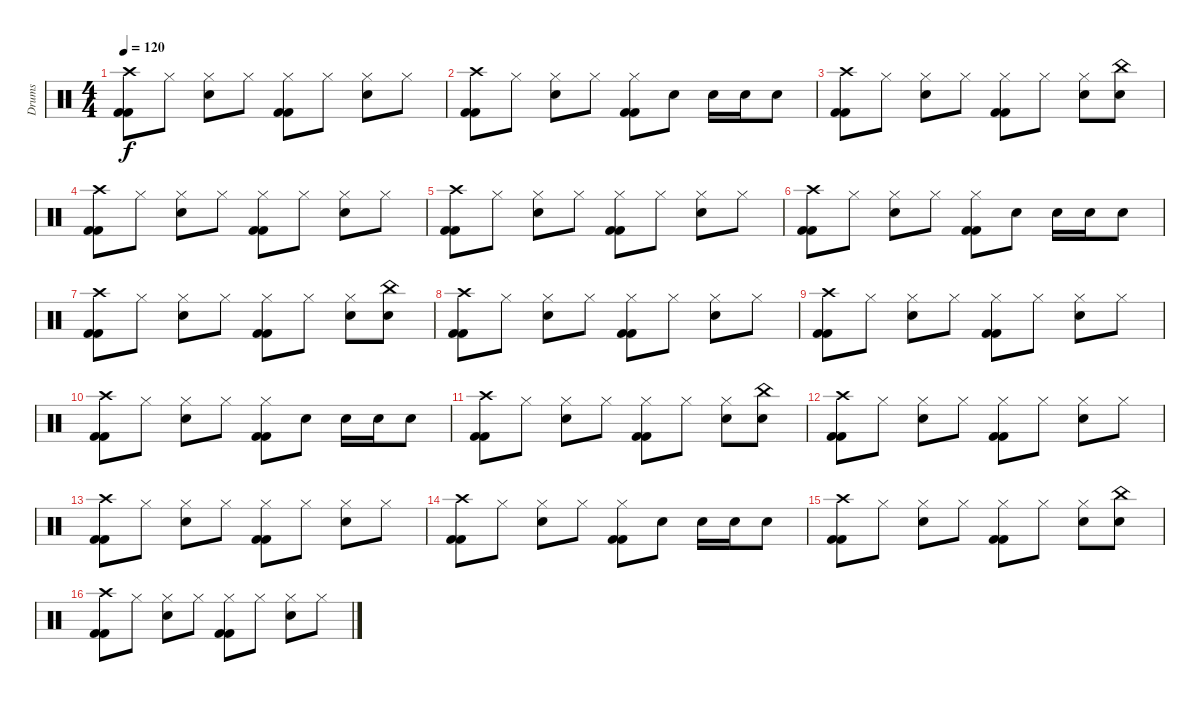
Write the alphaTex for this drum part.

\track ("Drums" "Drums") {instrument percussion}
\staff {score}
\articulation defaults
\ts (4 4)
\tempo 120
\clef neutral
\ks c
("Crash high (hit)" "Kick (hit) 2" "Kick (hit) 2").8{dy f} "Hi-Hat (closed)".8 ("Electric Snare (hit)" "Hi-Hat (closed)").8 "Hi-Hat (closed)".8 ("Hi-Hat (closed)" "Kick (hit) 2" "Kick (hit) 2").8 "Hi-Hat (closed)".8 ("Electric Snare (hit)" "Hi-Hat (closed)").8 "Hi-Hat (closed)".8 |
("Crash high (hit)" "Kick (hit) 2" "Kick (hit) 2").8 "Hi-Hat (closed)".8 ("Electric Snare (hit)" "Hi-Hat (closed)").8 "Hi-Hat (closed)".8 ("Hi-Hat (closed)" "Kick (hit) 2" "Kick (hit) 2").8 "Electric Snare (hit)".8 "Electric Snare (hit)".16 "Electric Snare (hit)".16 "Electric Snare (hit)".8 |
("Crash high (hit)" "Kick (hit) 2" "Kick (hit) 2").8 "Hi-Hat (closed)".8 ("Electric Snare (hit)" "Hi-Hat (closed)").8 "Hi-Hat (closed)".8 ("Hi-Hat (closed)" "Kick (hit) 2" "Kick (hit) 2").8 "Hi-Hat (closed)".8 ("Electric Snare (hit)" "Hi-Hat (closed)").8 ("China (hit)" "Electric Snare (hit)").8 |
("Crash high (hit)" "Kick (hit) 2" "Kick (hit) 2").8 "Hi-Hat (closed)".8 ("Electric Snare (hit)" "Hi-Hat (closed)").8 "Hi-Hat (closed)".8 ("Hi-Hat (closed)" "Kick (hit) 2" "Kick (hit) 2").8 "Hi-Hat (closed)".8 ("Electric Snare (hit)" "Hi-Hat (closed)").8 "Hi-Hat (closed)".8 |
("Crash high (hit)" "Kick (hit) 2" "Kick (hit) 2").8 "Hi-Hat (closed)".8 ("Electric Snare (hit)" "Hi-Hat (closed)").8 "Hi-Hat (closed)".8 ("Hi-Hat (closed)" "Kick (hit) 2" "Kick (hit) 2").8 "Hi-Hat (closed)".8 ("Electric Snare (hit)" "Hi-Hat (closed)").8 "Hi-Hat (closed)".8 |
("Crash high (hit)" "Kick (hit) 2" "Kick (hit) 2").8 "Hi-Hat (closed)".8 ("Electric Snare (hit)" "Hi-Hat (closed)").8 "Hi-Hat (closed)".8 ("Hi-Hat (closed)" "Kick (hit) 2" "Kick (hit) 2").8 "Electric Snare (hit)".8 "Electric Snare (hit)".16 "Electric Snare (hit)".16 "Electric Snare (hit)".8 |
("Crash high (hit)" "Kick (hit) 2" "Kick (hit) 2").8 "Hi-Hat (closed)".8 ("Electric Snare (hit)" "Hi-Hat (closed)").8 "Hi-Hat (closed)".8 ("Hi-Hat (closed)" "Kick (hit) 2" "Kick (hit) 2").8 "Hi-Hat (closed)".8 ("Electric Snare (hit)" "Hi-Hat (closed)").8 ("China (hit)" "Electric Snare (hit)").8 |
("Crash high (hit)" "Kick (hit) 2" "Kick (hit) 2").8 "Hi-Hat (closed)".8 ("Electric Snare (hit)" "Hi-Hat (closed)").8 "Hi-Hat (closed)".8 ("Hi-Hat (closed)" "Kick (hit) 2" "Kick (hit) 2").8 "Hi-Hat (closed)".8 ("Electric Snare (hit)" "Hi-Hat (closed)").8 "Hi-Hat (closed)".8 |
("Crash high (hit)" "Kick (hit) 2" "Kick (hit) 2").8 "Hi-Hat (closed)".8 ("Electric Snare (hit)" "Hi-Hat (closed)").8 "Hi-Hat (closed)".8 ("Hi-Hat (closed)" "Kick (hit) 2" "Kick (hit) 2").8 "Hi-Hat (closed)".8 ("Electric Snare (hit)" "Hi-Hat (closed)").8 "Hi-Hat (closed)".8 |
("Crash high (hit)" "Kick (hit) 2" "Kick (hit) 2").8 "Hi-Hat (closed)".8 ("Electric Snare (hit)" "Hi-Hat (closed)").8 "Hi-Hat (closed)".8 ("Hi-Hat (closed)" "Kick (hit) 2" "Kick (hit) 2").8 "Electric Snare (hit)".8 "Electric Snare (hit)".16 "Electric Snare (hit)".16 "Electric Snare (hit)".8 |
("Crash high (hit)" "Kick (hit) 2" "Kick (hit) 2").8 "Hi-Hat (closed)".8 ("Electric Snare (hit)" "Hi-Hat (closed)").8 "Hi-Hat (closed)".8 ("Hi-Hat (closed)" "Kick (hit) 2" "Kick (hit) 2").8 "Hi-Hat (closed)".8 ("Electric Snare (hit)" "Hi-Hat (closed)").8 ("China (hit)" "Electric Snare (hit)").8 |
("Crash high (hit)" "Kick (hit) 2" "Kick (hit) 2").8 "Hi-Hat (closed)".8 ("Electric Snare (hit)" "Hi-Hat (closed)").8 "Hi-Hat (closed)".8 ("Hi-Hat (closed)" "Kick (hit) 2" "Kick (hit) 2").8 "Hi-Hat (closed)".8 ("Electric Snare (hit)" "Hi-Hat (closed)").8 "Hi-Hat (closed)".8 |
("Crash high (hit)" "Kick (hit) 2" "Kick (hit) 2").8 "Hi-Hat (closed)".8 ("Electric Snare (hit)" "Hi-Hat (closed)").8 "Hi-Hat (closed)".8 ("Hi-Hat (closed)" "Kick (hit) 2" "Kick (hit) 2").8 "Hi-Hat (closed)".8 ("Electric Snare (hit)" "Hi-Hat (closed)").8 "Hi-Hat (closed)".8 |
("Crash high (hit)" "Kick (hit) 2" "Kick (hit) 2").8 "Hi-Hat (closed)".8 ("Electric Snare (hit)" "Hi-Hat (closed)").8 "Hi-Hat (closed)".8 ("Hi-Hat (closed)" "Kick (hit) 2" "Kick (hit) 2").8 "Electric Snare (hit)".8 "Electric Snare (hit)".16 "Electric Snare (hit)".16 "Electric Snare (hit)".8 |
("Crash high (hit)" "Kick (hit) 2" "Kick (hit) 2").8 "Hi-Hat (closed)".8 ("Electric Snare (hit)" "Hi-Hat (closed)").8 "Hi-Hat (closed)".8 ("Hi-Hat (closed)" "Kick (hit) 2" "Kick (hit) 2").8 "Hi-Hat (closed)".8 ("Electric Snare (hit)" "Hi-Hat (closed)").8 ("China (hit)" "Electric Snare (hit)").8 |
("Crash high (hit)" "Kick (hit) 2" "Kick (hit) 2").8 "Hi-Hat (closed)".8 ("Electric Snare (hit)" "Hi-Hat (closed)").8 "Hi-Hat (closed)".8 ("Hi-Hat (closed)" "Kick (hit) 2" "Kick (hit) 2").8 "Hi-Hat (closed)".8 ("Electric Snare (hit)" "Hi-Hat (closed)").8 "Hi-Hat (closed)".8
